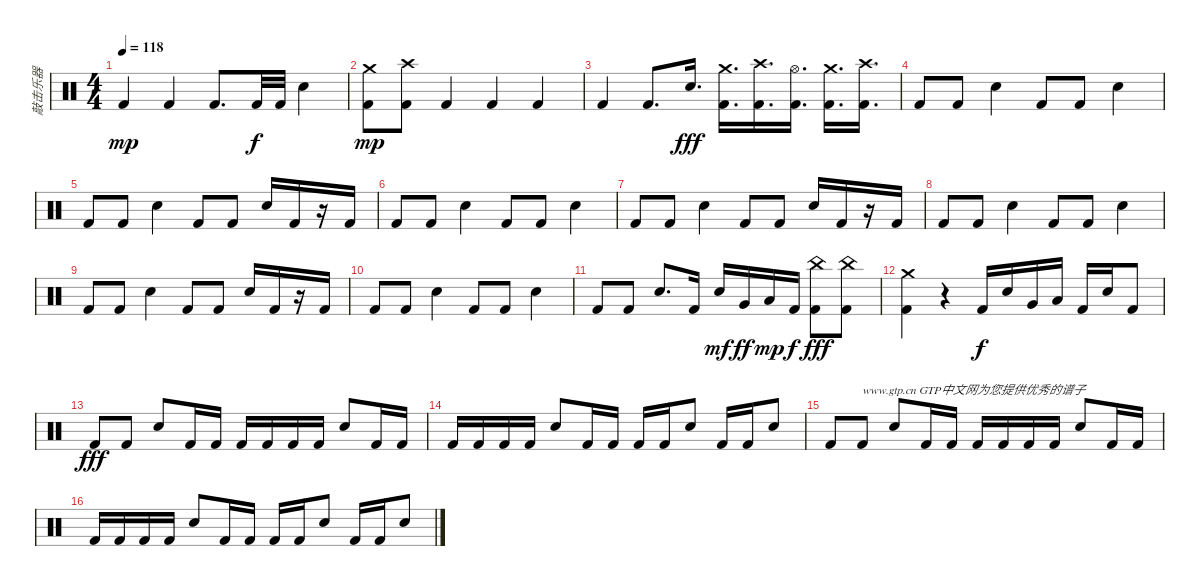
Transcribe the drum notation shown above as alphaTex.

\track ("敲击乐器" "敲击乐器") {instrument percussion}
\staff {score}
\articulation defaults
\ts (4 4)
\tempo 118
\clef neutral
\ks c "Kick (hit) 2".4{dy mp} "Kick (hit) 2".4 "Kick (hit) 2".8{d} "Kick (hit) 2".32{dy f} "Kick (hit) 2".32 "Snare (hit) 2".4
|
("Crash medium (hit)" "Kick (hit) 2").8{dy mp} ("Crash high (hit)" "Kick (hit) 2").8 "Kick (hit) 2".4 "Kick (hit) 2".4 "Kick (hit) 2".4 |
"Kick (hit) 2".4 "Kick (hit) 2".8{d} "Snare (hit) 2".16{d dy fff} ("Crash medium (hit)" "Kick (hit) 2").16{d} ("Crash high (hit)" "Kick (hit) 2").16{d} ("Hi-Hat (open)" "Kick (hit) 2").16{d} ("Crash medium (hit)" "Kick (hit) 2").16{d} ("Crash high (hit)" "Kick (hit) 2").16{d} |
"Kick (hit) 2".8 "Kick (hit) 2".8 "Snare (hit) 2".4 "Kick (hit) 2".8 "Kick (hit) 2".8 "Snare (hit) 2".4 |
"Kick (hit) 2".8 "Kick (hit) 2".8 "Snare (hit) 2".4 "Kick (hit) 2".8 "Kick (hit) 2".8 "Snare (hit) 2".16 "Kick (hit) 2".16 r.16 "Kick (hit) 2".16 |
"Kick (hit) 2".8 "Kick (hit) 2".8 "Snare (hit) 2".4 "Kick (hit) 2".8 "Kick (hit) 2".8 "Snare (hit) 2".4 |
"Kick (hit) 2".8 "Kick (hit) 2".8 "Snare (hit) 2".4 "Kick (hit) 2".8 "Kick (hit) 2".8 "Snare (hit) 2".16 "Kick (hit) 2".16 r.16 "Kick (hit) 2".16 |
"Kick (hit) 2".8 "Kick (hit) 2".8 "Snare (hit) 2".4 "Kick (hit) 2".8 "Kick (hit) 2".8 "Snare (hit) 2".4 |
"Kick (hit) 2".8 "Kick (hit) 2".8 "Snare (hit) 2".4 "Kick (hit) 2".8 "Kick (hit) 2".8 "Snare (hit) 2".16 "Kick (hit) 2".16 r.16 "Kick (hit) 2".16 |
"Kick (hit) 2".8 "Kick (hit) 2".8 "Snare (hit) 2".4 "Kick (hit) 2".8 "Kick (hit) 2".8 "Snare (hit) 2".4 |
"Kick (hit) 2".8 "Kick (hit) 2".8 "Snare (hit) 2".8{d} "Kick (hit) 2".16 "Snare (hit) 2".16{dy mf} "Very Low Tom (hit)".16{dy ff} "Low Floor Tom (hit)".16{dy mp} "Kick (hit) 2".16{dy f} ("China (hit)" "Kick (hit) 2").8{dy fff} ("China (hit)" "Kick (hit) 2").8 |
("Crash medium (hit)" "Kick (hit) 2").4 r.4 "Kick (hit) 2".16{dy f} "Snare (hit) 2".16 "Very Low Tom (hit)".16 "Low Floor Tom (hit)".16 "Kick (hit) 2".16 "Snare (hit) 2".16 "Kick (hit) 2".8 |
"Kick (hit) 2".8{dy fff} "Kick (hit) 2".8 "Snare (hit) 2".8 "Kick (hit) 2".16 "Kick (hit) 2".16 "Kick (hit) 2".16 "Kick (hit) 2".16 "Kick (hit) 2".16 "Kick (hit) 2".16 "Snare (hit) 2".8 "Kick (hit) 2".16 "Kick (hit) 2".16 |
"Kick (hit) 2".16 "Kick (hit) 2".16 "Kick (hit) 2".16 "Kick (hit) 2".16 "Snare (hit) 2".8 "Kick (hit) 2".16 "Kick (hit) 2".16 "Kick (hit) 2".16 "Kick (hit) 2".16 "Snare (hit) 2".8 "Kick (hit) 2".16 "Kick (hit) 2".16 "Snare (hit) 2".8 |
"Kick (hit) 2".8 "Kick (hit) 2".8{txt "www.gtp.cn GTP中文网为您提供优秀的谱子"} "Snare (hit) 2".8 "Kick (hit) 2".16 "Kick (hit) 2".16 "Kick (hit) 2".16 "Kick (hit) 2".16 "Kick (hit) 2".16 "Kick (hit) 2".16 "Snare (hit) 2".8 "Kick (hit) 2".16 "Kick (hit) 2".16 |
"Kick (hit) 2".16 "Kick (hit) 2".16 "Kick (hit) 2".16 "Kick (hit) 2".16 "Snare (hit) 2".8 "Kick (hit) 2".16 "Kick (hit) 2".16 "Kick (hit) 2".16 "Kick (hit) 2".16 "Snare (hit) 2".8 "Kick (hit) 2".16 "Kick (hit) 2".16 "Snare (hit) 2".8
